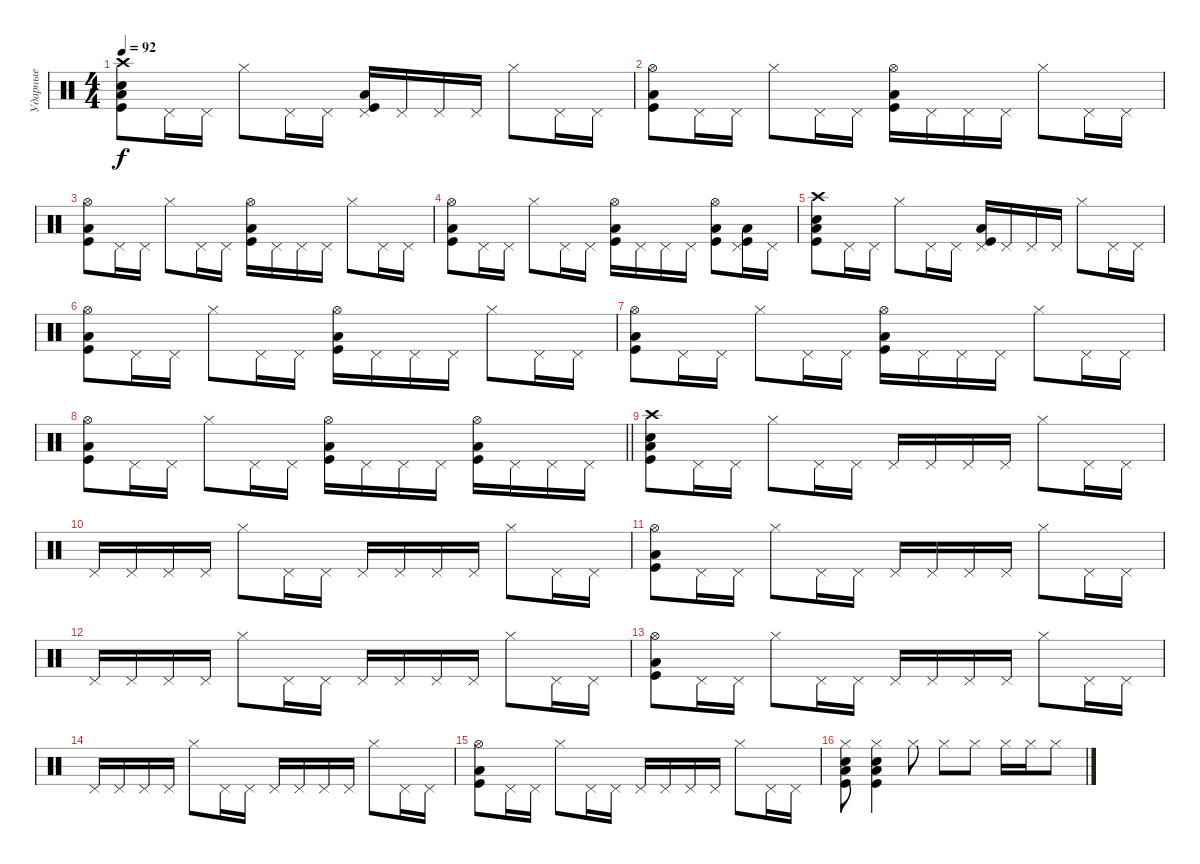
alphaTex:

\track ("Ударные" "Ударные") {instrument percussion}
\staff {score}
\articulation defaults
\ts (4 4)
\tempo 92
\clef neutral
\ks c
("Crash high (hit)" "Electric Snare (hit)" "Low Tom (hit)" "Kick (hit)").8{dy f} "Pedal Hi-Hat (hit)".16 "Pedal Hi-Hat (hit)".16 "Hi-Hat (closed)".8 "Pedal Hi-Hat (hit)".16 "Pedal Hi-Hat (hit)".16 ("Pedal Hi-Hat (hit)" "Low Tom (hit)" "Kick (hit)").16 "Pedal Hi-Hat (hit)".16 "Pedal Hi-Hat (hit)".16 "Pedal Hi-Hat (hit)".16 "Hi-Hat (closed)".8 "Pedal Hi-Hat (hit)".16 "Pedal Hi-Hat (hit)".16 |
("Hi-Hat (open)" "Low Tom (hit)" "Kick (hit)").8 "Pedal Hi-Hat (hit)".16 "Pedal Hi-Hat (hit)".16 "Hi-Hat (closed)".8 "Pedal Hi-Hat (hit)".16 "Pedal Hi-Hat (hit)".16 ("Hi-Hat (open)" "Low Tom (hit)" "Kick (hit)").16 "Pedal Hi-Hat (hit)".16 "Pedal Hi-Hat (hit)".16 "Pedal Hi-Hat (hit)".16 "Hi-Hat (closed)".8 "Pedal Hi-Hat (hit)".16 "Pedal Hi-Hat (hit)".16 |
("Hi-Hat (open)" "Low Tom (hit)" "Kick (hit)").8 "Pedal Hi-Hat (hit)".16 "Pedal Hi-Hat (hit)".16 "Hi-Hat (closed)".8 "Pedal Hi-Hat (hit)".16 "Pedal Hi-Hat (hit)".16 ("Hi-Hat (open)" "Low Tom (hit)" "Kick (hit)").16 "Pedal Hi-Hat (hit)".16 "Pedal Hi-Hat (hit)".16 "Pedal Hi-Hat (hit)".16 "Hi-Hat (closed)".8 "Pedal Hi-Hat (hit)".16 "Pedal Hi-Hat (hit)".16 |
("Hi-Hat (open)" "Low Tom (hit)" "Kick (hit)").8 "Pedal Hi-Hat (hit)".16 "Pedal Hi-Hat (hit)".16 "Hi-Hat (closed)".8 "Pedal Hi-Hat (hit)".16 "Pedal Hi-Hat (hit)".16 ("Hi-Hat (open)" "Low Tom (hit)" "Kick (hit)").16 "Pedal Hi-Hat (hit)".16 "Pedal Hi-Hat (hit)".16 "Pedal Hi-Hat (hit)".16 ("Hi-Hat (open)" "Low Tom (hit)" "Kick (hit)").8 ("Pedal Hi-Hat (hit)" "Low Tom (hit)" "Kick (hit)").16 "Pedal Hi-Hat (hit)".16 |
("Crash high (hit)" "Electric Snare (hit)" "Low Tom (hit)" "Kick (hit)").8 "Pedal Hi-Hat (hit)".16 "Pedal Hi-Hat (hit)".16 "Hi-Hat (closed)".8 "Pedal Hi-Hat (hit)".16 "Pedal Hi-Hat (hit)".16 ("Pedal Hi-Hat (hit)" "Low Tom (hit)" "Kick (hit)").16 "Pedal Hi-Hat (hit)".16 "Pedal Hi-Hat (hit)".16 "Pedal Hi-Hat (hit)".16 "Hi-Hat (closed)".8 "Pedal Hi-Hat (hit)".16 "Pedal Hi-Hat (hit)".16 |
("Hi-Hat (open)" "Low Tom (hit)" "Kick (hit)").8 "Pedal Hi-Hat (hit)".16 "Pedal Hi-Hat (hit)".16 "Hi-Hat (closed)".8 "Pedal Hi-Hat (hit)".16 "Pedal Hi-Hat (hit)".16 ("Hi-Hat (open)" "Low Tom (hit)" "Kick (hit)").16 "Pedal Hi-Hat (hit)".16 "Pedal Hi-Hat (hit)".16 "Pedal Hi-Hat (hit)".16 "Hi-Hat (closed)".8 "Pedal Hi-Hat (hit)".16 "Pedal Hi-Hat (hit)".16 |
("Hi-Hat (open)" "Low Tom (hit)" "Kick (hit)").8 "Pedal Hi-Hat (hit)".16 "Pedal Hi-Hat (hit)".16 "Hi-Hat (closed)".8 "Pedal Hi-Hat (hit)".16 "Pedal Hi-Hat (hit)".16 ("Hi-Hat (open)" "Low Tom (hit)" "Kick (hit)").16 "Pedal Hi-Hat (hit)".16 "Pedal Hi-Hat (hit)".16 "Pedal Hi-Hat (hit)".16 "Hi-Hat (closed)".8 "Pedal Hi-Hat (hit)".16 "Pedal Hi-Hat (hit)".16 |
\barLineRight lightlight
("Hi-Hat (open)" "Low Tom (hit)" "Kick (hit)").8 "Pedal Hi-Hat (hit)".16 "Pedal Hi-Hat (hit)".16 "Hi-Hat (closed)".8 "Pedal Hi-Hat (hit)".16 "Pedal Hi-Hat (hit)".16 ("Hi-Hat (open)" "Low Tom (hit)" "Kick (hit)").16 "Pedal Hi-Hat (hit)".16 "Pedal Hi-Hat (hit)".16 "Pedal Hi-Hat (hit)".16 ("Hi-Hat (open)" "Low Tom (hit)" "Kick (hit)").16 "Pedal Hi-Hat (hit)".16 "Pedal Hi-Hat (hit)".16 "Pedal Hi-Hat (hit)".16 |
("Crash high (hit)" "Electric Snare (hit)" "Low Tom (hit)" "Kick (hit)").8 "Pedal Hi-Hat (hit)".16 "Pedal Hi-Hat (hit)".16 "Hi-Hat (closed)".8 "Pedal Hi-Hat (hit)".16 "Pedal Hi-Hat (hit)".16 "Pedal Hi-Hat (hit)".16 "Pedal Hi-Hat (hit)".16 "Pedal Hi-Hat (hit)".16 "Pedal Hi-Hat (hit)".16 "Hi-Hat (closed)".8 "Pedal Hi-Hat (hit)".16 "Pedal Hi-Hat (hit)".16 |
"Pedal Hi-Hat (hit)".16 "Pedal Hi-Hat (hit)".16 "Pedal Hi-Hat (hit)".16 "Pedal Hi-Hat (hit)".16 "Hi-Hat (closed)".8 "Pedal Hi-Hat (hit)".16 "Pedal Hi-Hat (hit)".16 "Pedal Hi-Hat (hit)".16 "Pedal Hi-Hat (hit)".16 "Pedal Hi-Hat (hit)".16 "Pedal Hi-Hat (hit)".16 "Hi-Hat (closed)".8 "Pedal Hi-Hat (hit)".16 "Pedal Hi-Hat (hit)".16 |
("Hi-Hat (open)" "Low Tom (hit)" "Kick (hit)").8 "Pedal Hi-Hat (hit)".16 "Pedal Hi-Hat (hit)".16 "Hi-Hat (closed)".8 "Pedal Hi-Hat (hit)".16 "Pedal Hi-Hat (hit)".16 "Pedal Hi-Hat (hit)".16 "Pedal Hi-Hat (hit)".16 "Pedal Hi-Hat (hit)".16 "Pedal Hi-Hat (hit)".16 "Hi-Hat (closed)".8 "Pedal Hi-Hat (hit)".16 "Pedal Hi-Hat (hit)".16 |
"Pedal Hi-Hat (hit)".16 "Pedal Hi-Hat (hit)".16 "Pedal Hi-Hat (hit)".16 "Pedal Hi-Hat (hit)".16 "Hi-Hat (closed)".8 "Pedal Hi-Hat (hit)".16 "Pedal Hi-Hat (hit)".16 "Pedal Hi-Hat (hit)".16 "Pedal Hi-Hat (hit)".16 "Pedal Hi-Hat (hit)".16 "Pedal Hi-Hat (hit)".16 "Hi-Hat (closed)".8 "Pedal Hi-Hat (hit)".16 "Pedal Hi-Hat (hit)".16 |
("Hi-Hat (open)" "Low Tom (hit)" "Kick (hit)").8 "Pedal Hi-Hat (hit)".16 "Pedal Hi-Hat (hit)".16 "Hi-Hat (closed)".8 "Pedal Hi-Hat (hit)".16 "Pedal Hi-Hat (hit)".16 "Pedal Hi-Hat (hit)".16 "Pedal Hi-Hat (hit)".16 "Pedal Hi-Hat (hit)".16 "Pedal Hi-Hat (hit)".16 "Hi-Hat (closed)".8 "Pedal Hi-Hat (hit)".16 "Pedal Hi-Hat (hit)".16 |
"Pedal Hi-Hat (hit)".16 "Pedal Hi-Hat (hit)".16 "Pedal Hi-Hat (hit)".16 "Pedal Hi-Hat (hit)".16 "Hi-Hat (closed)".8 "Pedal Hi-Hat (hit)".16 "Pedal Hi-Hat (hit)".16 "Pedal Hi-Hat (hit)".16 "Pedal Hi-Hat (hit)".16 "Pedal Hi-Hat (hit)".16 "Pedal Hi-Hat (hit)".16 "Hi-Hat (closed)".8 "Pedal Hi-Hat (hit)".16 "Pedal Hi-Hat (hit)".16 |
("Hi-Hat (open)" "Low Tom (hit)" "Kick (hit)").8 "Pedal Hi-Hat (hit)".16 "Pedal Hi-Hat (hit)".16 "Hi-Hat (closed)".8 "Pedal Hi-Hat (hit)".16 "Pedal Hi-Hat (hit)".16 "Pedal Hi-Hat (hit)".16 "Pedal Hi-Hat (hit)".16 "Pedal Hi-Hat (hit)".16 "Pedal Hi-Hat (hit)".16 "Hi-Hat (closed)".8 "Pedal Hi-Hat (hit)".16 "Pedal Hi-Hat (hit)".16 |
("Hi-Hat (closed)" "Electric Snare (hit)" "Low Tom (hit)" "Kick (hit)").8 ("Hi-Hat (closed)" "Electric Snare (hit)" "Low Tom (hit)" "Kick (hit)").4 "Hi-Hat (closed)".8 "Hi-Hat (closed)".8 "Hi-Hat (closed)".8 "Hi-Hat (closed)".16 "Hi-Hat (closed)".16 "Hi-Hat (closed)".8
